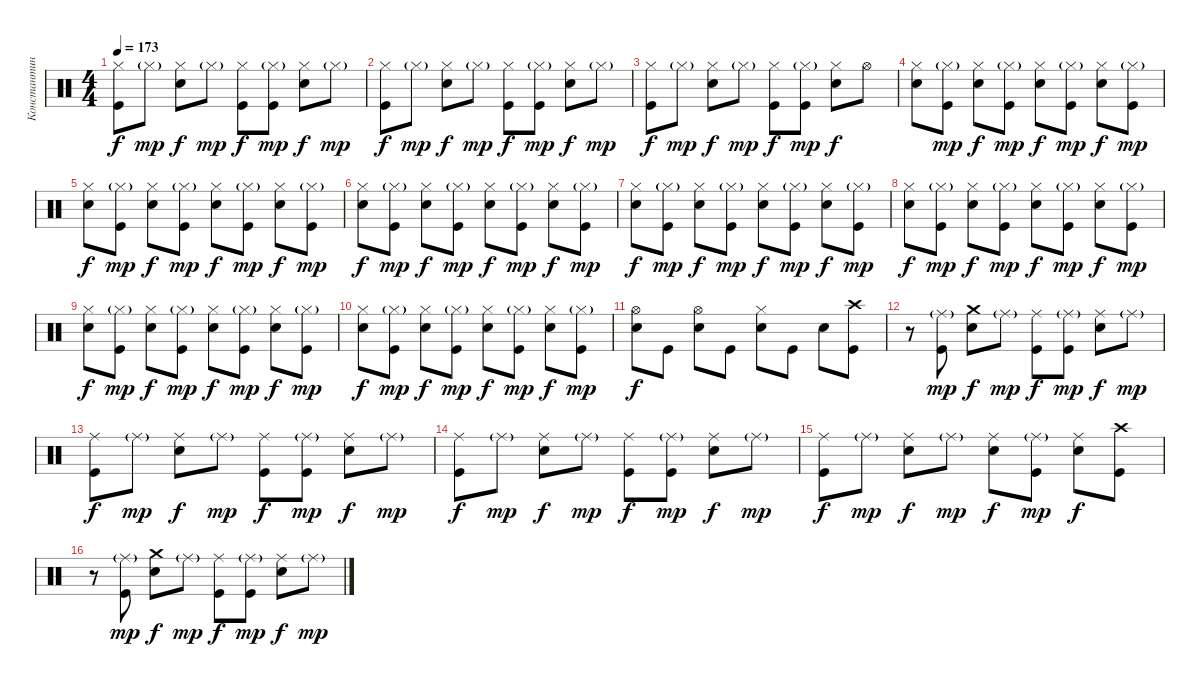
\track ("Константин Дементьев" "Константин") {instrument percussion}
\staff {score}
\articulation defaults
\ts (4 4)
\tempo 173
\clef neutral
\ks c
("Hi-Hat (closed)" "Kick (hit)").8{dy f} "Hi-Hat (closed)"{g}.8{dy mp} ("Hi-Hat (closed)" "Electric Snare (hit)").8{dy f} "Hi-Hat (closed)"{g}.8{dy mp} ("Hi-Hat (closed)" "Kick (hit)").8{dy f} ("Hi-Hat (closed)"{g} "Kick (hit)").8{dy mp} ("Hi-Hat (closed)" "Electric Snare (hit)").8{dy f} "Hi-Hat (closed)"{g}.8{dy mp} |
("Hi-Hat (closed)" "Kick (hit)").8{dy f} "Hi-Hat (closed)"{g}.8{dy mp} ("Hi-Hat (closed)" "Electric Snare (hit)").8{dy f} "Hi-Hat (closed)"{g}.8{dy mp} ("Hi-Hat (closed)" "Kick (hit)").8{dy f} ("Hi-Hat (closed)"{g} "Kick (hit)").8{dy mp} ("Hi-Hat (closed)" "Electric Snare (hit)").8{dy f} "Hi-Hat (closed)"{g}.8{dy mp} |
("Hi-Hat (closed)" "Kick (hit)").8{dy f} "Hi-Hat (closed)"{g}.8{dy mp} ("Hi-Hat (closed)" "Electric Snare (hit)").8{dy f} "Hi-Hat (closed)"{g}.8{dy mp} ("Hi-Hat (closed)" "Kick (hit)").8{dy f} ("Hi-Hat (closed)"{g} "Kick (hit)").8{dy mp} ("Hi-Hat (closed)" "Electric Snare (hit)").8{dy f} "Hi-Hat (open)".8 |
("Hi-Hat (closed)" "Electric Snare (hit)").8 ("Hi-Hat (closed)"{g} "Kick (hit)").8{dy mp} ("Hi-Hat (closed)" "Electric Snare (hit)").8{dy f} ("Hi-Hat (closed)"{g} "Kick (hit)").8{dy mp} ("Hi-Hat (closed)" "Electric Snare (hit)").8{dy f} ("Hi-Hat (closed)"{g} "Kick (hit)").8{dy mp} ("Hi-Hat (closed)" "Electric Snare (hit)").8{dy f} ("Hi-Hat (closed)"{g} "Kick (hit)").8{dy mp} |
("Hi-Hat (closed)" "Electric Snare (hit)").8{dy f} ("Hi-Hat (closed)"{g} "Kick (hit)").8{dy mp} ("Hi-Hat (closed)" "Electric Snare (hit)").8{dy f} ("Hi-Hat (closed)"{g} "Kick (hit)").8{dy mp} ("Hi-Hat (closed)" "Electric Snare (hit)").8{dy f} ("Hi-Hat (closed)"{g} "Kick (hit)").8{dy mp} ("Hi-Hat (closed)" "Electric Snare (hit)").8{dy f} ("Hi-Hat (closed)"{g} "Kick (hit)").8{dy mp} |
("Hi-Hat (closed)" "Electric Snare (hit)").8{dy f} ("Hi-Hat (closed)"{g} "Kick (hit)").8{dy mp} ("Hi-Hat (closed)" "Electric Snare (hit)").8{dy f} ("Hi-Hat (closed)"{g} "Kick (hit)").8{dy mp} ("Hi-Hat (closed)" "Electric Snare (hit)").8{dy f} ("Hi-Hat (closed)"{g} "Kick (hit)").8{dy mp} ("Hi-Hat (closed)" "Electric Snare (hit)").8{dy f} ("Hi-Hat (closed)"{g} "Kick (hit)").8{dy mp} |
("Hi-Hat (closed)" "Electric Snare (hit)").8{dy f} ("Hi-Hat (closed)"{g} "Kick (hit)").8{dy mp} ("Hi-Hat (closed)" "Electric Snare (hit)").8{dy f} ("Hi-Hat (closed)"{g} "Kick (hit)").8{dy mp} ("Hi-Hat (closed)" "Electric Snare (hit)").8{dy f} ("Hi-Hat (closed)"{g} "Kick (hit)").8{dy mp} ("Hi-Hat (closed)" "Electric Snare (hit)").8{dy f} ("Hi-Hat (closed)"{g} "Kick (hit)").8{dy mp} |
("Hi-Hat (closed)" "Electric Snare (hit)").8{dy f} ("Hi-Hat (closed)"{g} "Kick (hit)").8{dy mp} ("Hi-Hat (closed)" "Electric Snare (hit)").8{dy f} ("Hi-Hat (closed)"{g} "Kick (hit)").8{dy mp} ("Hi-Hat (closed)" "Electric Snare (hit)").8{dy f} ("Hi-Hat (closed)"{g} "Kick (hit)").8{dy mp} ("Hi-Hat (closed)" "Electric Snare (hit)").8{dy f} ("Hi-Hat (closed)"{g} "Kick (hit)").8{dy mp} |
("Hi-Hat (closed)" "Electric Snare (hit)").8{dy f} ("Hi-Hat (closed)"{g} "Kick (hit)").8{dy mp} ("Hi-Hat (closed)" "Electric Snare (hit)").8{dy f} ("Hi-Hat (closed)"{g} "Kick (hit)").8{dy mp} ("Hi-Hat (closed)" "Electric Snare (hit)").8{dy f} ("Hi-Hat (closed)"{g} "Kick (hit)").8{dy mp} ("Hi-Hat (closed)" "Electric Snare (hit)").8{dy f} ("Hi-Hat (closed)"{g} "Kick (hit)").8{dy mp} |
("Hi-Hat (closed)" "Electric Snare (hit)").8{dy f} ("Hi-Hat (closed)"{g} "Kick (hit)").8{dy mp} ("Hi-Hat (closed)" "Electric Snare (hit)").8{dy f} ("Hi-Hat (closed)"{g} "Kick (hit)").8{dy mp} ("Hi-Hat (closed)" "Electric Snare (hit)").8{dy f} ("Hi-Hat (closed)"{g} "Kick (hit)").8{dy mp} ("Hi-Hat (closed)" "Electric Snare (hit)").8{dy f} ("Hi-Hat (closed)"{g} "Kick (hit)").8{dy mp} |
("Hi-Hat (open)" "Electric Snare (hit)").8{dy f} "Kick (hit)".8 ("Hi-Hat (open)" "Electric Snare (hit)").8 "Kick (hit)".8 ("Hi-Hat (closed)" "Electric Snare (hit)").8 "Kick (hit)".8 "Electric Snare (hit)".8 ("Crash high (hit)" "Kick (hit)").8 |
r.8 ("Ride (middle)"{g} "Kick (hit)").8{dy mp} ("Crash medium (hit)" "Electric Snare (hit)").8{dy f} "Ride (middle)"{g}.8{dy mp} ("Ride (middle)" "Kick (hit)").8{dy f} ("Ride (middle)"{g} "Kick (hit)").8{dy mp} ("Ride (middle)" "Electric Snare (hit)").8{dy f} "Ride (middle)"{g}.8{dy mp} |
("Ride (middle)" "Kick (hit)").8{dy f} "Ride (middle)"{g}.8{dy mp} ("Ride (middle)" "Electric Snare (hit)").8{dy f} "Ride (middle)"{g}.8{dy mp} ("Ride (middle)" "Kick (hit)").8{dy f} ("Ride (middle)"{g} "Kick (hit)").8{dy mp} ("Ride (middle)" "Electric Snare (hit)").8{dy f} "Ride (middle)"{g}.8{dy mp} |
("Ride (middle)" "Kick (hit)").8{dy f} "Ride (middle)"{g}.8{dy mp} ("Ride (middle)" "Electric Snare (hit)").8{dy f} "Ride (middle)"{g}.8{dy mp} ("Ride (middle)" "Kick (hit)").8{dy f} ("Ride (middle)"{g} "Kick (hit)").8{dy mp} ("Ride (middle)" "Electric Snare (hit)").8{dy f} "Ride (middle)"{g}.8{dy mp} |
("Ride (middle)" "Kick (hit)").8{dy f} "Ride (middle)"{g}.8{dy mp} ("Ride (middle)" "Electric Snare (hit)").8{dy f} "Ride (middle)"{g}.8{dy mp} ("Ride (middle)" "Electric Snare (hit)").8{dy f} ("Ride (middle)"{g} "Kick (hit)").8{dy mp} ("Ride (middle)" "Electric Snare (hit)").8{dy f} ("Crash high (hit)" "Kick (hit)").8 |
r.8 ("Ride (middle)"{g} "Kick (hit)").8{dy mp} ("Crash medium (hit)" "Electric Snare (hit)").8{dy f} "Ride (middle)"{g}.8{dy mp} ("Ride (middle)" "Kick (hit)").8{dy f} ("Ride (middle)"{g} "Kick (hit)").8{dy mp} ("Ride (middle)" "Electric Snare (hit)").8{dy f} "Ride (middle)"{g}.8{dy mp}
